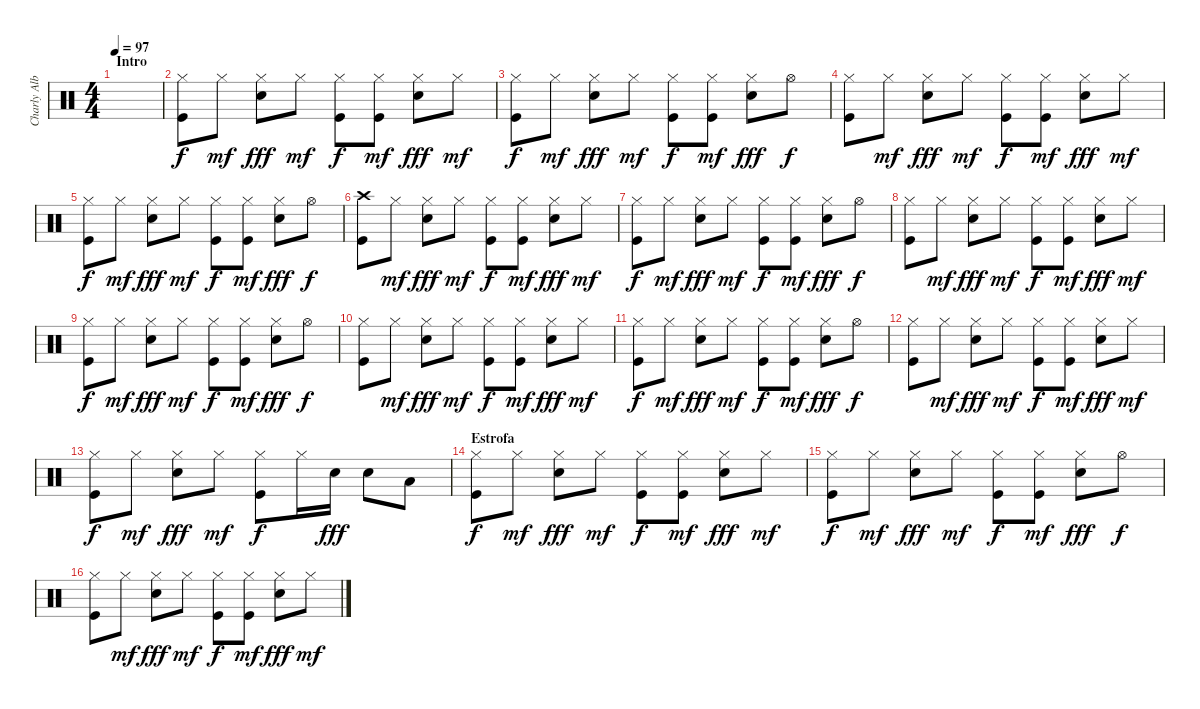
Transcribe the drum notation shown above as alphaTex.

\track ("Charly Alberti" "Charly Alb") {instrument percussion}
\staff {score}
\articulation defaults
\ts (4 4)
\section ("" "Intro")
\tempo 97
\clef neutral
\ks c
|
("Kick (hit)" "Hi-Hat (closed)").8 "Hi-Hat (closed)".8{dy mf} ("Snare (hit) 2" "Hi-Hat (closed)").8{dy fff} "Hi-Hat (closed)".8{dy mf} ("Kick (hit)" "Hi-Hat (closed)").8{dy f} ("Kick (hit)" "Hi-Hat (closed)").8{dy mf} ("Snare (hit) 2" "Hi-Hat (closed)").8{dy fff} "Hi-Hat (closed)".8{dy mf} |
("Kick (hit)" "Hi-Hat (closed)").8{dy f} "Hi-Hat (closed)".8{dy mf} ("Snare (hit) 2" "Hi-Hat (closed)").8{dy fff} "Hi-Hat (closed)".8{dy mf} ("Kick (hit)" "Hi-Hat (closed)").8{dy f} ("Kick (hit)" "Hi-Hat (closed)").8{dy mf} ("Snare (hit) 2" "Hi-Hat (closed)").8{dy fff} "Hi-Hat (open)".8{dy f} |
("Kick (hit)" "Hi-Hat (closed)").8 "Hi-Hat (closed)".8{dy mf} ("Snare (hit) 2" "Hi-Hat (closed)").8{dy fff} "Hi-Hat (closed)".8{dy mf} ("Kick (hit)" "Hi-Hat (closed)").8{dy f} ("Kick (hit)" "Hi-Hat (closed)").8{dy mf} ("Snare (hit) 2" "Hi-Hat (closed)").8{dy fff} "Hi-Hat (closed)".8{dy mf} |
("Kick (hit)" "Hi-Hat (closed)").8{dy f} "Hi-Hat (closed)".8{dy mf} ("Snare (hit) 2" "Hi-Hat (closed)").8{dy fff} "Hi-Hat (closed)".8{dy mf} ("Kick (hit)" "Hi-Hat (closed)").8{dy f} ("Kick (hit)" "Hi-Hat (closed)").8{dy mf} ("Snare (hit) 2" "Hi-Hat (closed)").8{dy fff} "Hi-Hat (open)".8{dy f} |
("Kick (hit)" "Crash high (hit)").8 "Hi-Hat (closed)".8{dy mf} ("Snare (hit) 2" "Hi-Hat (closed)").8{dy fff} "Hi-Hat (closed)".8{dy mf} ("Kick (hit)" "Hi-Hat (closed)").8{dy f} ("Kick (hit)" "Hi-Hat (closed)").8{dy mf} ("Snare (hit) 2" "Hi-Hat (closed)").8{dy fff} "Hi-Hat (closed)".8{dy mf} |
("Kick (hit)" "Hi-Hat (closed)").8{dy f} "Hi-Hat (closed)".8{dy mf} ("Snare (hit) 2" "Hi-Hat (closed)").8{dy fff} "Hi-Hat (closed)".8{dy mf} ("Kick (hit)" "Hi-Hat (closed)").8{dy f} ("Kick (hit)" "Hi-Hat (closed)").8{dy mf} ("Snare (hit) 2" "Hi-Hat (closed)").8{dy fff} "Hi-Hat (open)".8{dy f} |
("Kick (hit)" "Hi-Hat (closed)").8 "Hi-Hat (closed)".8{dy mf} ("Snare (hit) 2" "Hi-Hat (closed)").8{dy fff} "Hi-Hat (closed)".8{dy mf} ("Kick (hit)" "Hi-Hat (closed)").8{dy f} ("Kick (hit)" "Hi-Hat (closed)").8{dy mf} ("Snare (hit) 2" "Hi-Hat (closed)").8{dy fff} "Hi-Hat (closed)".8{dy mf} |
("Kick (hit)" "Hi-Hat (closed)").8{dy f} "Hi-Hat (closed)".8{dy mf} ("Snare (hit) 2" "Hi-Hat (closed)").8{dy fff} "Hi-Hat (closed)".8{dy mf} ("Kick (hit)" "Hi-Hat (closed)").8{dy f} ("Kick (hit)" "Hi-Hat (closed)").8{dy mf} ("Snare (hit) 2" "Hi-Hat (closed)").8{dy fff} "Hi-Hat (open)".8{dy f} |
("Kick (hit)" "Hi-Hat (closed)").8 "Hi-Hat (closed)".8{dy mf} ("Snare (hit) 2" "Hi-Hat (closed)").8{dy fff} "Hi-Hat (closed)".8{dy mf} ("Kick (hit)" "Hi-Hat (closed)").8{dy f} ("Kick (hit)" "Hi-Hat (closed)").8{dy mf} ("Snare (hit) 2" "Hi-Hat (closed)").8{dy fff} "Hi-Hat (closed)".8{dy mf} |
("Kick (hit)" "Hi-Hat (closed)").8{dy f} "Hi-Hat (closed)".8{dy mf} ("Snare (hit) 2" "Hi-Hat (closed)").8{dy fff} "Hi-Hat (closed)".8{dy mf} ("Kick (hit)" "Hi-Hat (closed)").8{dy f} ("Kick (hit)" "Hi-Hat (closed)").8{dy mf} ("Snare (hit) 2" "Hi-Hat (closed)").8{dy fff} "Hi-Hat (open)".8{dy f} |
("Kick (hit)" "Hi-Hat (closed)").8 "Hi-Hat (closed)".8{dy mf} ("Snare (hit) 2" "Hi-Hat (closed)").8{dy fff} "Hi-Hat (closed)".8{dy mf} ("Kick (hit)" "Hi-Hat (closed)").8{dy f} ("Kick (hit)" "Hi-Hat (closed)").8{dy mf} ("Snare (hit) 2" "Hi-Hat (closed)").8{dy fff} "Hi-Hat (closed)".8{dy mf} |
("Kick (hit)" "Hi-Hat (closed)").8{dy f} "Hi-Hat (closed)".8{dy mf} ("Snare (hit) 2" "Hi-Hat (closed)").8{dy fff} "Hi-Hat (closed)".8{dy mf} ("Kick (hit)" "Hi-Hat (closed)").8{dy f} "Hi-Hat (closed)".16 "Snare (hit) 2".16{dy fff} "Snare (hit) 2".8 "Low Tom (hit)".8 |
\section ("" "Estrofa")
("Kick (hit)" "Hi-Hat (closed)").8{dy f} "Hi-Hat (closed)".8{dy mf} ("Snare (hit) 2" "Hi-Hat (closed)").8{dy fff} "Hi-Hat (closed)".8{dy mf} ("Kick (hit)" "Hi-Hat (closed)").8{dy f} ("Kick (hit)" "Hi-Hat (closed)").8{dy mf} ("Snare (hit) 2" "Hi-Hat (closed)").8{dy fff} "Hi-Hat (closed)".8{dy mf} |
("Kick (hit)" "Hi-Hat (closed)").8{dy f} "Hi-Hat (closed)".8{dy mf} ("Snare (hit) 2" "Hi-Hat (closed)").8{dy fff} "Hi-Hat (closed)".8{dy mf} ("Kick (hit)" "Hi-Hat (closed)").8{dy f} ("Kick (hit)" "Hi-Hat (closed)").8{dy mf} ("Snare (hit) 2" "Hi-Hat (closed)").8{dy fff} "Hi-Hat (open)".8{dy f} |
("Kick (hit)" "Hi-Hat (closed)").8 "Hi-Hat (closed)".8{dy mf} ("Snare (hit) 2" "Hi-Hat (closed)").8{dy fff} "Hi-Hat (closed)".8{dy mf} ("Kick (hit)" "Hi-Hat (closed)").8{dy f} ("Kick (hit)" "Hi-Hat (closed)").8{dy mf} ("Snare (hit) 2" "Hi-Hat (closed)").8{dy fff} "Hi-Hat (closed)".8{dy mf}
